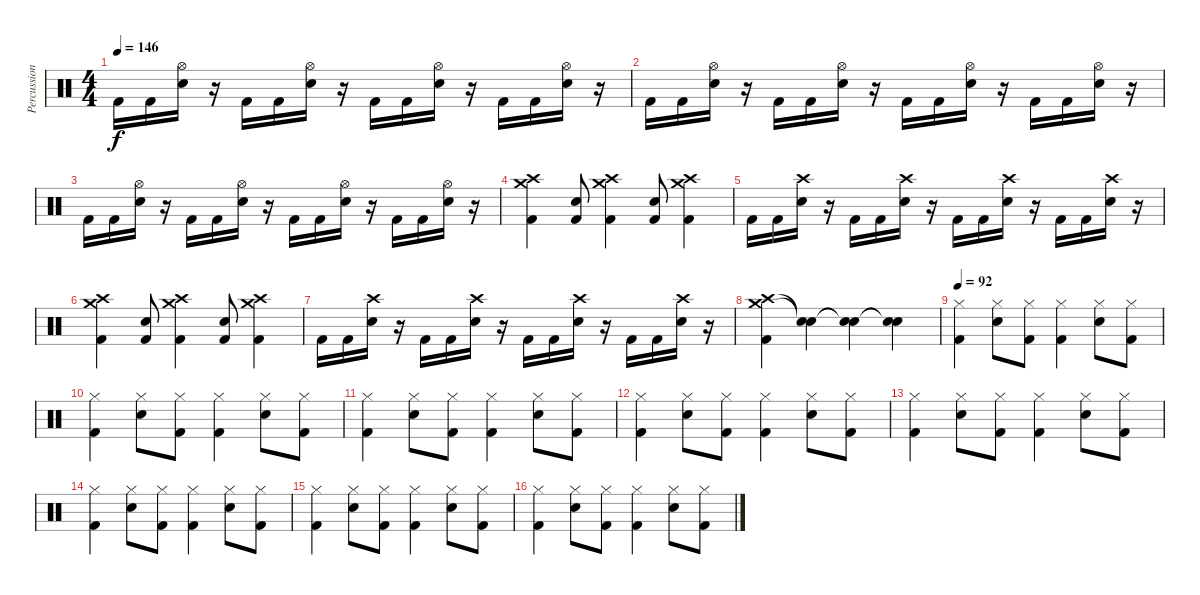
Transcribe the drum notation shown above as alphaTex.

\track ("Percussion(Dr.Spock)" "Percussion") {instrument percussion}
\staff {score}
\articulation defaults
\ts (4 4)
\tempo 146
\clef neutral
\ks c "Kick (hit) 2".16{dy f} "Kick (hit) 2".16
("Snare (hit) 2" "Hi-Hat (open)").16 r.16 "Kick (hit) 2".16 "Kick (hit) 2".16 ("Snare (hit) 2" "Hi-Hat (open)").16 r.16 "Kick (hit) 2".16 "Kick (hit) 2".16 ("Snare (hit) 2" "Hi-Hat (open)").16 r.16 "Kick (hit) 2".16 "Kick (hit) 2".16 ("Snare (hit) 2" "Hi-Hat (open)").16 r.16 |
"Kick (hit) 2".16 "Kick (hit) 2".16 ("Snare (hit) 2" "Hi-Hat (open)").16 r.16 "Kick (hit) 2".16 "Kick (hit) 2".16 ("Snare (hit) 2" "Hi-Hat (open)").16 r.16 "Kick (hit) 2".16 "Kick (hit) 2".16 ("Snare (hit) 2" "Hi-Hat (open)").16 r.16 "Kick (hit) 2".16 "Kick (hit) 2".16 ("Snare (hit) 2" "Hi-Hat (open)").16 r.16 |
"Kick (hit) 2".16 "Kick (hit) 2".16 ("Snare (hit) 2" "Hi-Hat (open)").16 r.16 "Kick (hit) 2".16 "Kick (hit) 2".16 ("Snare (hit) 2" "Hi-Hat (open)").16 r.16 "Kick (hit) 2".16 "Kick (hit) 2".16 ("Snare (hit) 2" "Hi-Hat (open)").16 r.16 "Kick (hit) 2".16 "Kick (hit) 2".16 ("Snare (hit) 2" "Hi-Hat (open)").16 r.16 |
("Crash medium (hit)" "Crash high (hit)" "Kick (hit) 2").4 ("Snare (hit) 2" "Kick (hit) 2").8 ("Crash medium (hit)" "Crash high (hit)" "Kick (hit) 2").4 ("Snare (hit) 2" "Kick (hit) 2").8 ("Crash medium (hit)" "Crash high (hit)" "Kick (hit) 2").4 |
"Kick (hit) 2".16 "Kick (hit) 2".16 ("Snare (hit) 2" "Crash high (hit)").16 r.16 "Kick (hit) 2".16 "Kick (hit) 2".16 ("Snare (hit) 2" "Crash high (hit)").16 r.16 "Kick (hit) 2".16 "Kick (hit) 2".16 ("Snare (hit) 2" "Crash high (hit)").16 r.16 "Kick (hit) 2".16 "Kick (hit) 2".16 ("Snare (hit) 2" "Crash high (hit)").16 r.16 |
("Crash medium (hit)" "Crash high (hit)" "Kick (hit) 2").4 ("Snare (hit) 2" "Kick (hit) 2").8 ("Crash medium (hit)" "Crash high (hit)" "Kick (hit) 2").4 ("Snare (hit) 2" "Kick (hit) 2").8 ("Crash medium (hit)" "Crash high (hit)" "Kick (hit) 2").4 |
"Kick (hit) 2".16 "Kick (hit) 2".16 ("Snare (hit) 2" "Crash high (hit)").16 r.16 "Kick (hit) 2".16 "Kick (hit) 2".16 ("Snare (hit) 2" "Crash high (hit)").16 r.16 "Kick (hit) 2".16 "Kick (hit) 2".16 ("Snare (hit) 2" "Crash high (hit)").16 r.16 "Kick (hit) 2".16 "Kick (hit) 2".16 ("Snare (hit) 2" "Crash high (hit)").16 r.16 |
("Crash medium (hit)" "Crash high (hit)" "Kick (hit) 2").4 ("Snare (hit)"{t} "Snare (hit)"{t}).4 ("Snare (hit)"{t} "Snare (hit)"{t}).4 ("Snare (hit)"{t} "Snare (hit)"{t}).4 |
\tempo 92
("Hi-Hat (closed)" "Kick (hit) 2").4 ("Hi-Hat (closed)" "Snare (hit) 2").8 ("Hi-Hat (closed)" "Kick (hit) 2").8 ("Hi-Hat (closed)" "Kick (hit) 2").4 ("Hi-Hat (closed)" "Snare (hit) 2").8 ("Hi-Hat (closed)" "Kick (hit) 2").8 |
("Hi-Hat (closed)" "Kick (hit) 2").4 ("Hi-Hat (closed)" "Snare (hit) 2").8 ("Hi-Hat (closed)" "Kick (hit) 2").8 ("Hi-Hat (closed)" "Kick (hit) 2").4 ("Hi-Hat (closed)" "Snare (hit) 2").8 ("Hi-Hat (closed)" "Kick (hit) 2").8 |
("Hi-Hat (closed)" "Kick (hit) 2").4 ("Hi-Hat (closed)" "Snare (hit) 2").8 ("Hi-Hat (closed)" "Kick (hit) 2").8 ("Hi-Hat (closed)" "Kick (hit) 2").4 ("Hi-Hat (closed)" "Snare (hit) 2").8 ("Hi-Hat (closed)" "Kick (hit) 2").8 |
("Hi-Hat (closed)" "Kick (hit) 2").4 ("Hi-Hat (closed)" "Snare (hit) 2").8 ("Hi-Hat (closed)" "Kick (hit) 2").8 ("Hi-Hat (closed)" "Kick (hit) 2").4 ("Hi-Hat (closed)" "Snare (hit) 2").8 ("Hi-Hat (closed)" "Kick (hit) 2").8 |
("Hi-Hat (closed)" "Kick (hit) 2").4 ("Hi-Hat (closed)" "Snare (hit) 2").8 ("Hi-Hat (closed)" "Kick (hit) 2").8 ("Hi-Hat (closed)" "Kick (hit) 2").4 ("Hi-Hat (closed)" "Snare (hit) 2").8 ("Hi-Hat (closed)" "Kick (hit) 2").8 |
("Hi-Hat (closed)" "Kick (hit) 2").4 ("Hi-Hat (closed)" "Snare (hit) 2").8 ("Hi-Hat (closed)" "Kick (hit) 2").8 ("Hi-Hat (closed)" "Kick (hit) 2").4 ("Hi-Hat (closed)" "Snare (hit) 2").8 ("Hi-Hat (closed)" "Kick (hit) 2").8 |
("Hi-Hat (closed)" "Kick (hit) 2").4 ("Hi-Hat (closed)" "Snare (hit) 2").8 ("Hi-Hat (closed)" "Kick (hit) 2").8 ("Hi-Hat (closed)" "Kick (hit) 2").4 ("Hi-Hat (closed)" "Snare (hit) 2").8 ("Hi-Hat (closed)" "Kick (hit) 2").8 |
("Hi-Hat (closed)" "Kick (hit) 2").4 ("Hi-Hat (closed)" "Snare (hit) 2").8 ("Hi-Hat (closed)" "Kick (hit) 2").8 ("Hi-Hat (closed)" "Kick (hit) 2").4 ("Hi-Hat (closed)" "Snare (hit) 2").8 ("Hi-Hat (closed)" "Kick (hit) 2").8
